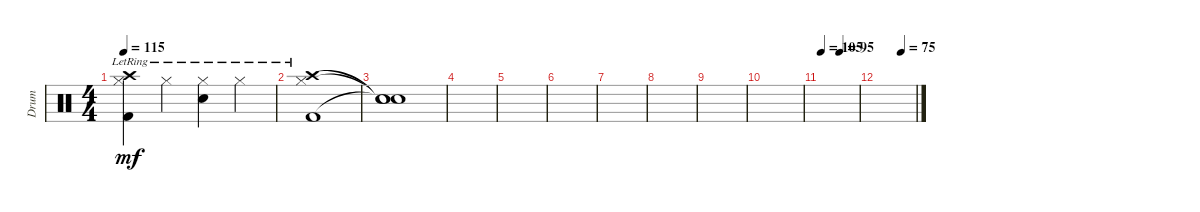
\track ("Drum" "Drum") {instrument percussion}
\staff {score}
\articulation defaults
\ts (4 4)
\tempo 115
\clef neutral
\ks c
("Kick (hit) 2"{lr} "Hi-Hat (closed)"{lr} "Crash high (hit)"{lr}).4{dy mf} "Hi-Hat (closed)"{lr}.4 ("Snare (hit) 2"{lr} "Hi-Hat (closed)"{lr}).4 "Hi-Hat (closed)"{lr}.4 |
("Kick (hit) 2"{lr} "Hi-Hat (closed)"{lr} "Crash high (hit)").1 |
("Snare (hit)"{t} "Snare (hit)"{t} "Snare (hit)"{t}).1 |
|
|
|
|
|
|
|
\tempo (95 0.5)
\tempo 105
|
\tempo (75 0.625)
